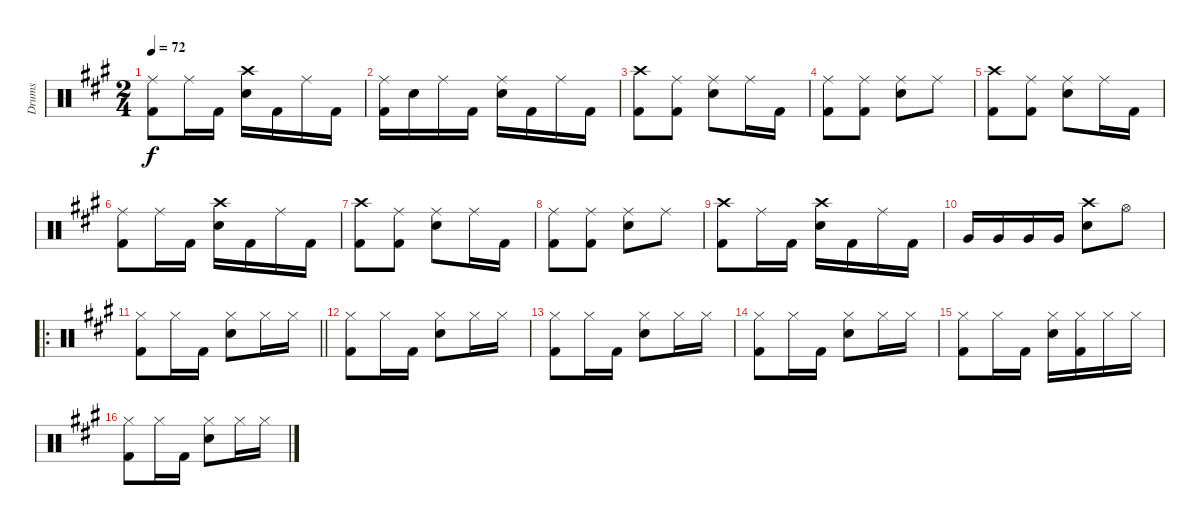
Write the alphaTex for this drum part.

\track ("Drums" "Drums") {instrument percussion}
\staff {score}
\articulation defaults
\ts (2 4)
\tempo 72
\clef neutral
\ks a
("Ride (middle)" "Kick (hit) 2").8{dy f} "Ride (middle)".16 "Kick (hit) 2".16 ("Crash high (hit)" "Snare (hit) 2").16 "Kick (hit) 2".16 "Ride (middle)".16 "Kick (hit) 2".16 |
("Ride (middle)" "Kick (hit) 2").16 "Snare (hit) 2".16 "Ride (middle)".16 "Kick (hit) 2".16 ("Ride (middle)" "Snare (hit) 2").16 "Kick (hit) 2".16 "Ride (middle)".16 "Kick (hit) 2".16 |
("Crash high (hit)" "Kick (hit) 2").8 ("Ride (middle)" "Kick (hit) 2").8 ("Ride (middle)" "Snare (hit) 2").8 "Ride (middle)".16 "Kick (hit) 2".16 |
("Ride (middle)" "Kick (hit) 2").8 ("Ride (middle)" "Kick (hit) 2").8 ("Ride (middle)" "Snare (hit) 2").8 "Ride (middle)".8 |
("Crash high (hit)" "Kick (hit) 2").8 ("Ride (middle)" "Kick (hit) 2").8 ("Ride (middle)" "Snare (hit) 2").8 "Ride (middle)".16 "Kick (hit) 2".16 |
("Ride (middle)" "Kick (hit) 2").8 "Ride (middle)".16 "Kick (hit) 2".16 ("Crash high (hit)" "Snare (hit) 2").16 "Kick (hit) 2".16 "Ride (middle)".16 "Kick (hit) 2".16 |
("Crash high (hit)" "Kick (hit) 2").8 ("Ride (middle)" "Kick (hit) 2").8 ("Ride (middle)" "Snare (hit) 2").8 "Ride (middle)".16 "Kick (hit) 2".16 |
("Ride (middle)" "Kick (hit) 2").8 ("Ride (middle)" "Kick (hit) 2").8 ("Ride (middle)" "Snare (hit) 2").8 "Ride (middle)".8 |
("Crash high (hit)" "Kick (hit) 2").8 "Ride (middle)".16 "Kick (hit) 2".16 ("Crash high (hit)" "Snare (hit) 2").16 "Kick (hit) 2".16 "Ride (middle)".16 "Kick (hit) 2".16 |
"Very Low Tom (hit)".16 "Very Low Tom (hit)".16 "Very Low Tom (hit)".16 "Very Low Tom (hit)".16 ("Crash high (hit)" "Snare (hit) 2").8 "Hi-Hat (open)".8 |
\ro
\barLineRight lightlight
("Hi-Hat (closed)" "Kick (hit) 2").8 "Hi-Hat (closed)".16 "Kick (hit) 2".16 ("Hi-Hat (closed)" "Snare (hit) 2").8 "Hi-Hat (closed)".16 "Hi-Hat (closed)".16 |
("Hi-Hat (closed)" "Kick (hit) 2").8 "Hi-Hat (closed)".16 "Kick (hit) 2".16 ("Hi-Hat (closed)" "Snare (hit) 2").8 "Hi-Hat (closed)".16 "Hi-Hat (closed)".16 |
("Hi-Hat (closed)" "Kick (hit) 2").8 "Hi-Hat (closed)".16 "Kick (hit) 2".16 ("Hi-Hat (closed)" "Snare (hit) 2").8 "Hi-Hat (closed)".16 "Hi-Hat (closed)".16 |
("Hi-Hat (closed)" "Kick (hit) 2").8 "Hi-Hat (closed)".16 "Kick (hit) 2".16 ("Hi-Hat (closed)" "Snare (hit) 2").8 "Hi-Hat (closed)".16 "Hi-Hat (closed)".16 |
("Hi-Hat (closed)" "Kick (hit) 2").8 "Hi-Hat (closed)".16 "Kick (hit) 2".16 ("Hi-Hat (closed)" "Snare (hit) 2").16 ("Hi-Hat (closed)" "Kick (hit) 2").16 "Hi-Hat (closed)".16 "Hi-Hat (closed)".16 |
("Hi-Hat (closed)" "Kick (hit) 2").8 "Hi-Hat (closed)".16 "Kick (hit) 2".16 ("Hi-Hat (closed)" "Snare (hit) 2").8 "Hi-Hat (closed)".16 "Hi-Hat (closed)".16
